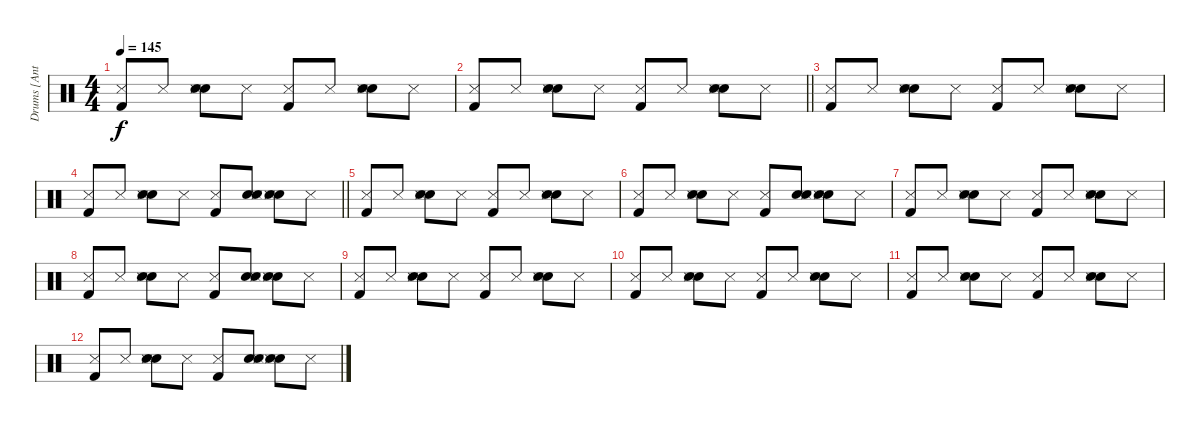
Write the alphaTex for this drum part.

\track ("Drums [Anthony Improgo]" "Drums [Ant") {instrument percussion}
\staff {score}
\articulation defaults
\ts (4 4)
\tempo 145
\clef neutral
\ks c
("Snare (side stick) 3" "Kick (hit) 2").8{dy f} "Snare (side stick) 3".8 ("Hand Clap (hit)" "Snare (hit) 2" "Snare (side stick) 3").8 "Snare (side stick) 3".8 ("Snare (side stick) 3" "Kick (hit) 2").8 "Snare (side stick) 3".8 ("Hand Clap (hit)" "Snare (hit) 2" "Snare (side stick) 3").8 "Snare (side stick) 3".8 |
\barLineRight lightlight
("Snare (side stick) 3" "Kick (hit) 2").8 "Snare (side stick) 3".8 ("Hand Clap (hit)" "Snare (hit) 2" "Snare (side stick) 3").8 "Snare (side stick) 3".8 ("Snare (side stick) 3" "Kick (hit) 2").8 "Snare (side stick) 3".8 ("Hand Clap (hit)" "Snare (hit) 2" "Snare (side stick) 3").8 "Snare (side stick) 3".8 |
("Snare (side stick) 3" "Kick (hit) 2").8 "Snare (side stick) 3".8 ("Hand Clap (hit)" "Snare (hit) 2" "Snare (side stick) 3").8 "Snare (side stick) 3".8 ("Snare (side stick) 3" "Kick (hit) 2").8 "Snare (side stick) 3".8 ("Hand Clap (hit)" "Snare (hit) 2" "Snare (side stick) 3").8 "Snare (side stick) 3".8 |
\barLineRight lightlight
("Snare (side stick) 3" "Kick (hit) 2").8 "Snare (side stick) 3".8 ("Hand Clap (hit)" "Snare (hit) 2" "Snare (side stick) 3").8 "Snare (side stick) 3".8 ("Snare (side stick) 3" "Kick (hit) 2").8 ("Hand Clap (hit)" "Snare (hit) 2" "Snare (side stick) 3").8 ("Hand Clap (hit)" "Snare (hit) 2" "Snare (side stick) 3").8 "Snare (side stick) 3".8 |
("Snare (side stick) 3" "Kick (hit) 2").8 "Snare (side stick) 3".8 ("Hand Clap (hit)" "Snare (hit) 2" "Snare (side stick) 3").8 "Snare (side stick) 3".8 ("Snare (side stick) 3" "Kick (hit) 2").8 "Snare (side stick) 3".8 ("Hand Clap (hit)" "Snare (hit) 2" "Snare (side stick) 3").8 "Snare (side stick) 3".8 |
("Snare (side stick) 3" "Kick (hit) 2").8 "Snare (side stick) 3".8 ("Hand Clap (hit)" "Snare (hit) 2" "Snare (side stick) 3").8 "Snare (side stick) 3".8 ("Snare (side stick) 3" "Kick (hit) 2").8 ("Hand Clap (hit)" "Snare (hit) 2" "Snare (side stick) 3").8 ("Hand Clap (hit)" "Snare (hit) 2" "Snare (side stick) 3").8 "Snare (side stick) 3".8 |
("Snare (side stick) 3" "Kick (hit) 2").8 "Snare (side stick) 3".8 ("Hand Clap (hit)" "Snare (hit) 2" "Snare (side stick) 3").8 "Snare (side stick) 3".8 ("Snare (side stick) 3" "Kick (hit) 2").8 "Snare (side stick) 3".8 ("Hand Clap (hit)" "Snare (hit) 2" "Snare (side stick) 3").8 "Snare (side stick) 3".8 |
("Snare (side stick) 3" "Kick (hit) 2").8 "Snare (side stick) 3".8 ("Hand Clap (hit)" "Snare (hit) 2" "Snare (side stick) 3").8 "Snare (side stick) 3".8 ("Snare (side stick) 3" "Kick (hit) 2").8 ("Hand Clap (hit)" "Snare (hit) 2" "Snare (side stick) 3").8 ("Hand Clap (hit)" "Snare (hit) 2" "Snare (side stick) 3").8 "Snare (side stick) 3".8 |
("Snare (side stick) 3" "Kick (hit) 2").8 "Snare (side stick) 3".8 ("Hand Clap (hit)" "Snare (hit) 2" "Snare (side stick) 3").8 "Snare (side stick) 3".8 ("Snare (side stick) 3" "Kick (hit) 2").8 "Snare (side stick) 3".8 ("Hand Clap (hit)" "Snare (hit) 2" "Snare (side stick) 3").8 "Snare (side stick) 3".8 |
("Snare (side stick) 3" "Kick (hit) 2").8 "Snare (side stick) 3".8 ("Hand Clap (hit)" "Snare (hit) 2" "Snare (side stick) 3").8 "Snare (side stick) 3".8 ("Snare (side stick) 3" "Kick (hit) 2").8 "Snare (side stick) 3".8 ("Hand Clap (hit)" "Snare (hit) 2" "Snare (side stick) 3").8 "Snare (side stick) 3".8 |
("Snare (side stick) 3" "Kick (hit) 2").8 "Snare (side stick) 3".8 ("Hand Clap (hit)" "Snare (hit) 2" "Snare (side stick) 3").8 "Snare (side stick) 3".8 ("Snare (side stick) 3" "Kick (hit) 2").8 "Snare (side stick) 3".8 ("Hand Clap (hit)" "Snare (hit) 2" "Snare (side stick) 3").8 "Snare (side stick) 3".8 |
("Snare (side stick) 3" "Kick (hit) 2").8 "Snare (side stick) 3".8 ("Hand Clap (hit)" "Snare (hit) 2" "Snare (side stick) 3").8 "Snare (side stick) 3".8 ("Snare (side stick) 3" "Kick (hit) 2").8 ("Hand Clap (hit)" "Snare (hit) 2" "Snare (side stick) 3").8 ("Hand Clap (hit)" "Snare (hit) 2" "Snare (side stick) 3").8 "Snare (side stick) 3".8
